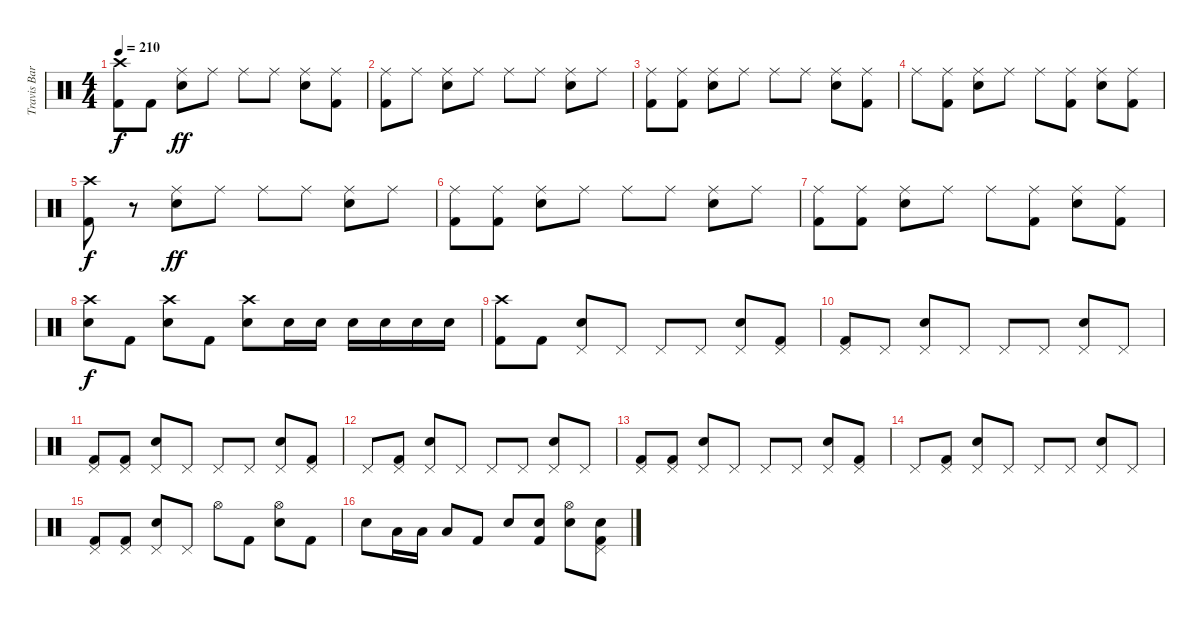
\track ("Travis Barker" "Travis Bar") {instrument percussion}
\staff {score}
\articulation defaults
\ts (4 4)
\tempo 210
\clef neutral
\ks c
("Crash high (hit)" "Kick (hit) 2").8{dy f} "Kick (hit) 2".8 ("Ride (middle)" "Electric Snare (hit)").8{dy ff} "Ride (middle)".8 "Ride (middle)".8 "Ride (middle)".8 ("Ride (middle)" "Electric Snare (hit)").8 ("Ride (middle)" "Kick (hit) 2").8 |
("Ride (middle)" "Kick (hit) 2").8 "Ride (middle)".8 ("Ride (middle)" "Electric Snare (hit)").8 "Ride (middle)".8 "Ride (middle)".8 "Ride (middle)".8 ("Ride (middle)" "Electric Snare (hit)").8 "Ride (middle)".8 |
("Ride (middle)" "Kick (hit) 2").8 ("Ride (middle)" "Kick (hit) 2").8 ("Ride (middle)" "Electric Snare (hit)").8 "Ride (middle)".8 "Ride (middle)".8 "Ride (middle)".8 ("Ride (middle)" "Electric Snare (hit)").8 ("Ride (middle)" "Kick (hit) 2").8 |
"Ride (middle)".8 ("Ride (middle)" "Kick (hit) 2").8 ("Ride (middle)" "Electric Snare (hit)").8 "Ride (middle)".8 "Ride (middle)".8 ("Ride (middle)" "Kick (hit) 2").8 ("Ride (middle)" "Electric Snare (hit)").8 ("Ride (middle)" "Kick (hit) 2").8 |
("Crash high (hit)" "Kick (hit) 2").8{dy f} r.8 ("Ride (middle)" "Electric Snare (hit)").8{dy ff} "Ride (middle)".8 "Ride (middle)".8 "Ride (middle)".8 ("Ride (middle)" "Electric Snare (hit)").8 "Ride (middle)".8 |
("Ride (middle)" "Kick (hit) 2").8 ("Ride (middle)" "Kick (hit) 2").8 ("Ride (middle)" "Electric Snare (hit)").8 "Ride (middle)".8 "Ride (middle)".8 "Ride (middle)".8 ("Ride (middle)" "Electric Snare (hit)").8 "Ride (middle)".8 |
("Ride (middle)" "Kick (hit) 2").8 ("Ride (middle)" "Kick (hit) 2").8 ("Ride (middle)" "Electric Snare (hit)").8 "Ride (middle)".8 "Ride (middle)".8 ("Ride (middle)" "Kick (hit) 2").8 ("Ride (middle)" "Electric Snare (hit)").8 ("Ride (middle)" "Kick (hit) 2").8 |
("Crash high (hit)" "Electric Snare (hit)").8{dy f} "Kick (hit) 2".8 ("Crash high (hit)" "Electric Snare (hit)").8 "Kick (hit) 2".8 ("Crash high (hit)" "Electric Snare (hit)").8 "Electric Snare (hit)".16 "Electric Snare (hit)".16 "Electric Snare (hit)".16 "Electric Snare (hit)".16 "Electric Snare (hit)".16 "Electric Snare (hit)".16 |
("Crash high (hit)" "Kick (hit) 2").8 "Kick (hit) 2".8 ("Pedal Hi-Hat (hit)" "Electric Snare (hit)").8 "Pedal Hi-Hat (hit)".8 "Pedal Hi-Hat (hit)".8 "Pedal Hi-Hat (hit)".8 ("Pedal Hi-Hat (hit)" "Electric Snare (hit)").8 ("Pedal Hi-Hat (hit)" "Kick (hit) 2").8 |
("Pedal Hi-Hat (hit)" "Kick (hit) 2").8 "Pedal Hi-Hat (hit)".8 ("Pedal Hi-Hat (hit)" "Electric Snare (hit)").8 "Pedal Hi-Hat (hit)".8 "Pedal Hi-Hat (hit)".8 "Pedal Hi-Hat (hit)".8 ("Pedal Hi-Hat (hit)" "Electric Snare (hit)").8 "Pedal Hi-Hat (hit)".8 |
("Pedal Hi-Hat (hit)" "Kick (hit) 2").8 ("Pedal Hi-Hat (hit)" "Kick (hit) 2").8 ("Pedal Hi-Hat (hit)" "Electric Snare (hit)").8 "Pedal Hi-Hat (hit)".8 "Pedal Hi-Hat (hit)".8 "Pedal Hi-Hat (hit)".8 ("Pedal Hi-Hat (hit)" "Electric Snare (hit)").8 ("Pedal Hi-Hat (hit)" "Kick (hit) 2").8 |
"Pedal Hi-Hat (hit)".8 ("Pedal Hi-Hat (hit)" "Kick (hit) 2").8 ("Pedal Hi-Hat (hit)" "Electric Snare (hit)").8 "Pedal Hi-Hat (hit)".8 "Pedal Hi-Hat (hit)".8 "Pedal Hi-Hat (hit)".8 ("Pedal Hi-Hat (hit)" "Electric Snare (hit)").8 "Pedal Hi-Hat (hit)".8 |
("Pedal Hi-Hat (hit)" "Kick (hit) 2").8 ("Pedal Hi-Hat (hit)" "Kick (hit) 2").8 ("Pedal Hi-Hat (hit)" "Electric Snare (hit)").8 "Pedal Hi-Hat (hit)".8 "Pedal Hi-Hat (hit)".8 "Pedal Hi-Hat (hit)".8 ("Pedal Hi-Hat (hit)" "Electric Snare (hit)").8 ("Pedal Hi-Hat (hit)" "Kick (hit) 2").8 |
"Pedal Hi-Hat (hit)".8 ("Pedal Hi-Hat (hit)" "Kick (hit) 2").8 ("Pedal Hi-Hat (hit)" "Electric Snare (hit)").8 "Pedal Hi-Hat (hit)".8 "Pedal Hi-Hat (hit)".8 "Pedal Hi-Hat (hit)".8 ("Pedal Hi-Hat (hit)" "Electric Snare (hit)").8 "Pedal Hi-Hat (hit)".8 |
("Pedal Hi-Hat (hit)" "Kick (hit) 2").8 ("Pedal Hi-Hat (hit)" "Kick (hit) 2").8 ("Pedal Hi-Hat (hit)" "Electric Snare (hit)").8 "Pedal Hi-Hat (hit)".8 "Hi-Hat (open)".8 "Kick (hit) 2".8 ("Hi-Hat (open)" "Electric Snare (hit)").8 "Kick (hit) 2".8 |
"Electric Snare (hit)".8 "Low Tom (hit)".16 "Low Tom (hit)".16 "Low Tom (hit)".8 "Kick (hit) 2".8 "Electric Snare (hit)".8 ("Snare (hit)"{x} "Kick (hit) 2").8 ("Hi-Hat (open)" "Electric Snare (hit)").8 ("Snare (hit)"{x} "Pedal Hi-Hat (hit)" "Kick (hit) 2").8
